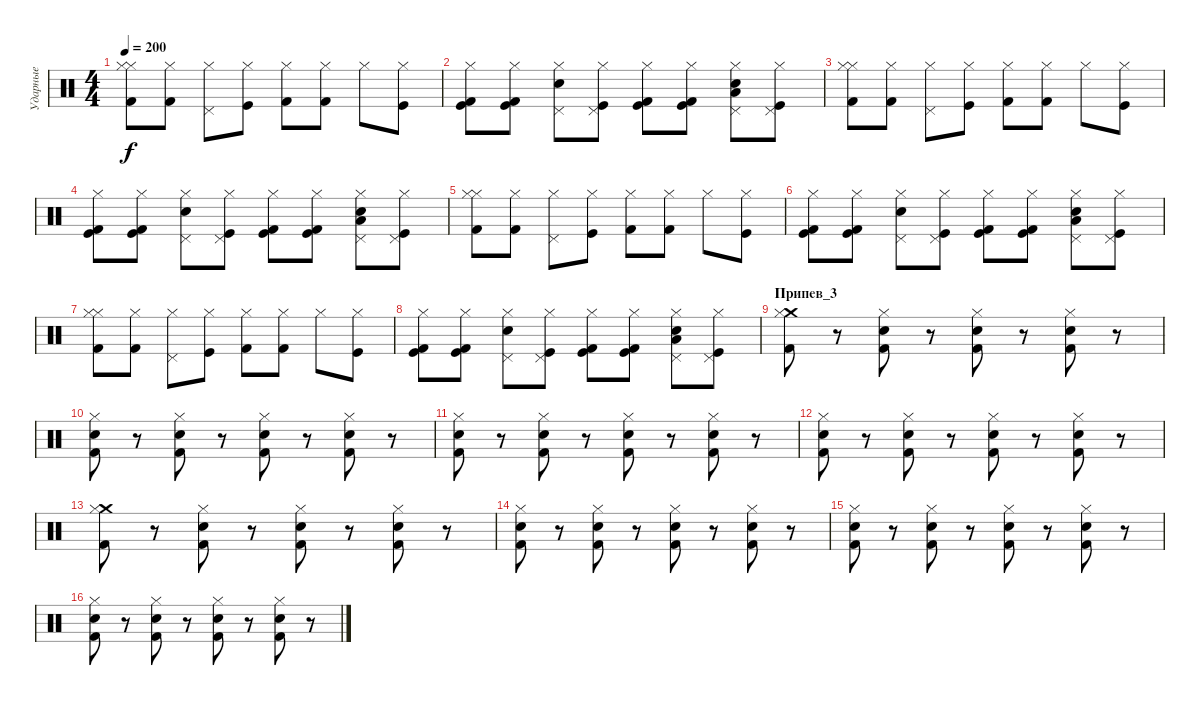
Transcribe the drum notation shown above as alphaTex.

\track ("Ударные" "Ударные") {instrument percussion}
\staff {score}
\articulation defaults
\ts (4 4)
\tempo 200
\clef neutral
\ks c
("Hi-Hat (closed)" "Kick (hit) 2" "Hi-Hat (closed)").8{dy f} ("Hi-Hat (closed)" "Kick (hit) 2").8 ("Hi-Hat (closed)" "Pedal Hi-Hat (hit)").8 ("Hi-Hat (closed)" "Kick (hit)").8 ("Hi-Hat (closed)" "Kick (hit) 2").8 ("Hi-Hat (closed)" "Kick (hit) 2").8 "Hi-Hat (closed)".8 ("Hi-Hat (closed)" "Kick (hit)").8 |
("Kick (hit)" "Kick (hit) 2" "Hi-Hat (closed)").8 ("Kick (hit)" "Kick (hit) 2" "Hi-Hat (closed)").8 ("Electric Snare (hit)" "Pedal Hi-Hat (hit)" "Hi-Hat (closed)").8 ("Pedal Hi-Hat (hit)" "Kick (hit)" "Hi-Hat (closed)").8 ("Kick (hit)" "Kick (hit) 2" "Hi-Hat (closed)").8 ("Kick (hit)" "Kick (hit) 2" "Hi-Hat (closed)").8 ("Low Tom (hit)" "Electric Snare (hit)" "Pedal Hi-Hat (hit)" "Hi-Hat (closed)").8 ("Pedal Hi-Hat (hit)" "Kick (hit)" "Hi-Hat (closed)").8 |
("Hi-Hat (closed)" "Kick (hit) 2" "Hi-Hat (closed)").8 ("Hi-Hat (closed)" "Kick (hit) 2").8 ("Hi-Hat (closed)" "Pedal Hi-Hat (hit)").8 ("Hi-Hat (closed)" "Kick (hit)").8 ("Hi-Hat (closed)" "Kick (hit) 2").8 ("Hi-Hat (closed)" "Kick (hit) 2").8 "Hi-Hat (closed)".8 ("Hi-Hat (closed)" "Kick (hit)").8 |
("Kick (hit)" "Kick (hit) 2" "Hi-Hat (closed)").8 ("Kick (hit)" "Kick (hit) 2" "Hi-Hat (closed)").8 ("Electric Snare (hit)" "Pedal Hi-Hat (hit)" "Hi-Hat (closed)").8 ("Pedal Hi-Hat (hit)" "Kick (hit)" "Hi-Hat (closed)").8 ("Kick (hit)" "Kick (hit) 2" "Hi-Hat (closed)").8 ("Kick (hit)" "Kick (hit) 2" "Hi-Hat (closed)").8 ("Low Tom (hit)" "Electric Snare (hit)" "Pedal Hi-Hat (hit)" "Hi-Hat (closed)").8 ("Pedal Hi-Hat (hit)" "Kick (hit)" "Hi-Hat (closed)").8 |
("Hi-Hat (closed)" "Kick (hit) 2" "Hi-Hat (closed)").8 ("Hi-Hat (closed)" "Kick (hit) 2").8 ("Hi-Hat (closed)" "Pedal Hi-Hat (hit)").8 ("Hi-Hat (closed)" "Kick (hit)").8 ("Hi-Hat (closed)" "Kick (hit) 2").8 ("Hi-Hat (closed)" "Kick (hit) 2").8 "Hi-Hat (closed)".8 ("Hi-Hat (closed)" "Kick (hit)").8 |
("Kick (hit)" "Kick (hit) 2" "Hi-Hat (closed)").8 ("Kick (hit)" "Kick (hit) 2" "Hi-Hat (closed)").8 ("Electric Snare (hit)" "Pedal Hi-Hat (hit)" "Hi-Hat (closed)").8 ("Pedal Hi-Hat (hit)" "Kick (hit)" "Hi-Hat (closed)").8 ("Kick (hit)" "Kick (hit) 2" "Hi-Hat (closed)").8 ("Kick (hit)" "Kick (hit) 2" "Hi-Hat (closed)").8 ("Low Tom (hit)" "Electric Snare (hit)" "Pedal Hi-Hat (hit)" "Hi-Hat (closed)").8 ("Pedal Hi-Hat (hit)" "Kick (hit)" "Hi-Hat (closed)").8 |
("Hi-Hat (closed)" "Kick (hit) 2" "Hi-Hat (closed)").8 ("Hi-Hat (closed)" "Kick (hit) 2").8 ("Hi-Hat (closed)" "Pedal Hi-Hat (hit)").8 ("Hi-Hat (closed)" "Kick (hit)").8 ("Hi-Hat (closed)" "Kick (hit) 2").8 ("Hi-Hat (closed)" "Kick (hit) 2").8 "Hi-Hat (closed)".8 ("Hi-Hat (closed)" "Kick (hit)").8 |
("Kick (hit)" "Kick (hit) 2" "Hi-Hat (closed)").8 ("Kick (hit)" "Kick (hit) 2" "Hi-Hat (closed)").8 ("Electric Snare (hit)" "Pedal Hi-Hat (hit)" "Hi-Hat (closed)").8 ("Pedal Hi-Hat (hit)" "Kick (hit)" "Hi-Hat (closed)").8 ("Kick (hit)" "Kick (hit) 2" "Hi-Hat (closed)").8 ("Kick (hit)" "Kick (hit) 2" "Hi-Hat (closed)").8 ("Low Tom (hit)" "Electric Snare (hit)" "Pedal Hi-Hat (hit)" "Hi-Hat (closed)").8 ("Pedal Hi-Hat (hit)" "Kick (hit)" "Hi-Hat (closed)").8 |
\section ("" "Припев_3")
("Crash medium (hit)" "Kick (hit) 2" "Hi-Hat (closed)").8 r.8 ("Snare (hit) 2" "Kick (hit) 2" "Hi-Hat (closed)").8 r.8 ("Snare (hit) 2" "Kick (hit) 2" "Hi-Hat (closed)").8 r.8 ("Snare (hit) 2" "Kick (hit) 2" "Hi-Hat (closed)").8 r.8 |
("Snare (hit) 2" "Kick (hit) 2" "Hi-Hat (closed)").8 r.8 ("Snare (hit) 2" "Kick (hit) 2" "Hi-Hat (closed)").8 r.8 ("Snare (hit) 2" "Kick (hit) 2" "Hi-Hat (closed)").8 r.8 ("Snare (hit) 2" "Kick (hit) 2" "Hi-Hat (closed)").8 r.8 |
("Snare (hit) 2" "Kick (hit) 2" "Hi-Hat (closed)").8 r.8 ("Snare (hit) 2" "Kick (hit) 2" "Hi-Hat (closed)").8 r.8 ("Snare (hit) 2" "Kick (hit) 2" "Hi-Hat (closed)").8 r.8 ("Snare (hit) 2" "Kick (hit) 2" "Hi-Hat (closed)").8 r.8 |
("Snare (hit) 2" "Kick (hit) 2" "Hi-Hat (closed)").8 r.8 ("Snare (hit) 2" "Kick (hit) 2" "Hi-Hat (closed)").8 r.8 ("Snare (hit) 2" "Kick (hit) 2" "Hi-Hat (closed)").8 r.8 ("Snare (hit) 2" "Kick (hit) 2" "Hi-Hat (closed)").8 r.8 |
("Crash medium (hit)" "Kick (hit) 2" "Hi-Hat (closed)").8 r.8 ("Snare (hit) 2" "Kick (hit) 2" "Hi-Hat (closed)").8 r.8 ("Snare (hit) 2" "Kick (hit) 2" "Hi-Hat (closed)").8 r.8 ("Snare (hit) 2" "Kick (hit) 2" "Hi-Hat (closed)").8 r.8 |
("Snare (hit) 2" "Kick (hit) 2" "Hi-Hat (closed)").8 r.8 ("Snare (hit) 2" "Kick (hit) 2" "Hi-Hat (closed)").8 r.8 ("Snare (hit) 2" "Kick (hit) 2" "Hi-Hat (closed)").8 r.8 ("Snare (hit) 2" "Kick (hit) 2" "Hi-Hat (closed)").8 r.8 |
("Snare (hit) 2" "Kick (hit) 2" "Hi-Hat (closed)").8 r.8 ("Snare (hit) 2" "Kick (hit) 2" "Hi-Hat (closed)").8 r.8 ("Snare (hit) 2" "Kick (hit) 2" "Hi-Hat (closed)").8 r.8 ("Snare (hit) 2" "Kick (hit) 2" "Hi-Hat (closed)").8 r.8 |
("Snare (hit) 2" "Kick (hit) 2" "Hi-Hat (closed)").8 r.8 ("Snare (hit) 2" "Kick (hit) 2" "Hi-Hat (closed)").8 r.8 ("Snare (hit) 2" "Kick (hit) 2" "Hi-Hat (closed)").8 r.8 ("Snare (hit) 2" "Kick (hit) 2" "Hi-Hat (closed)").8 r.8
